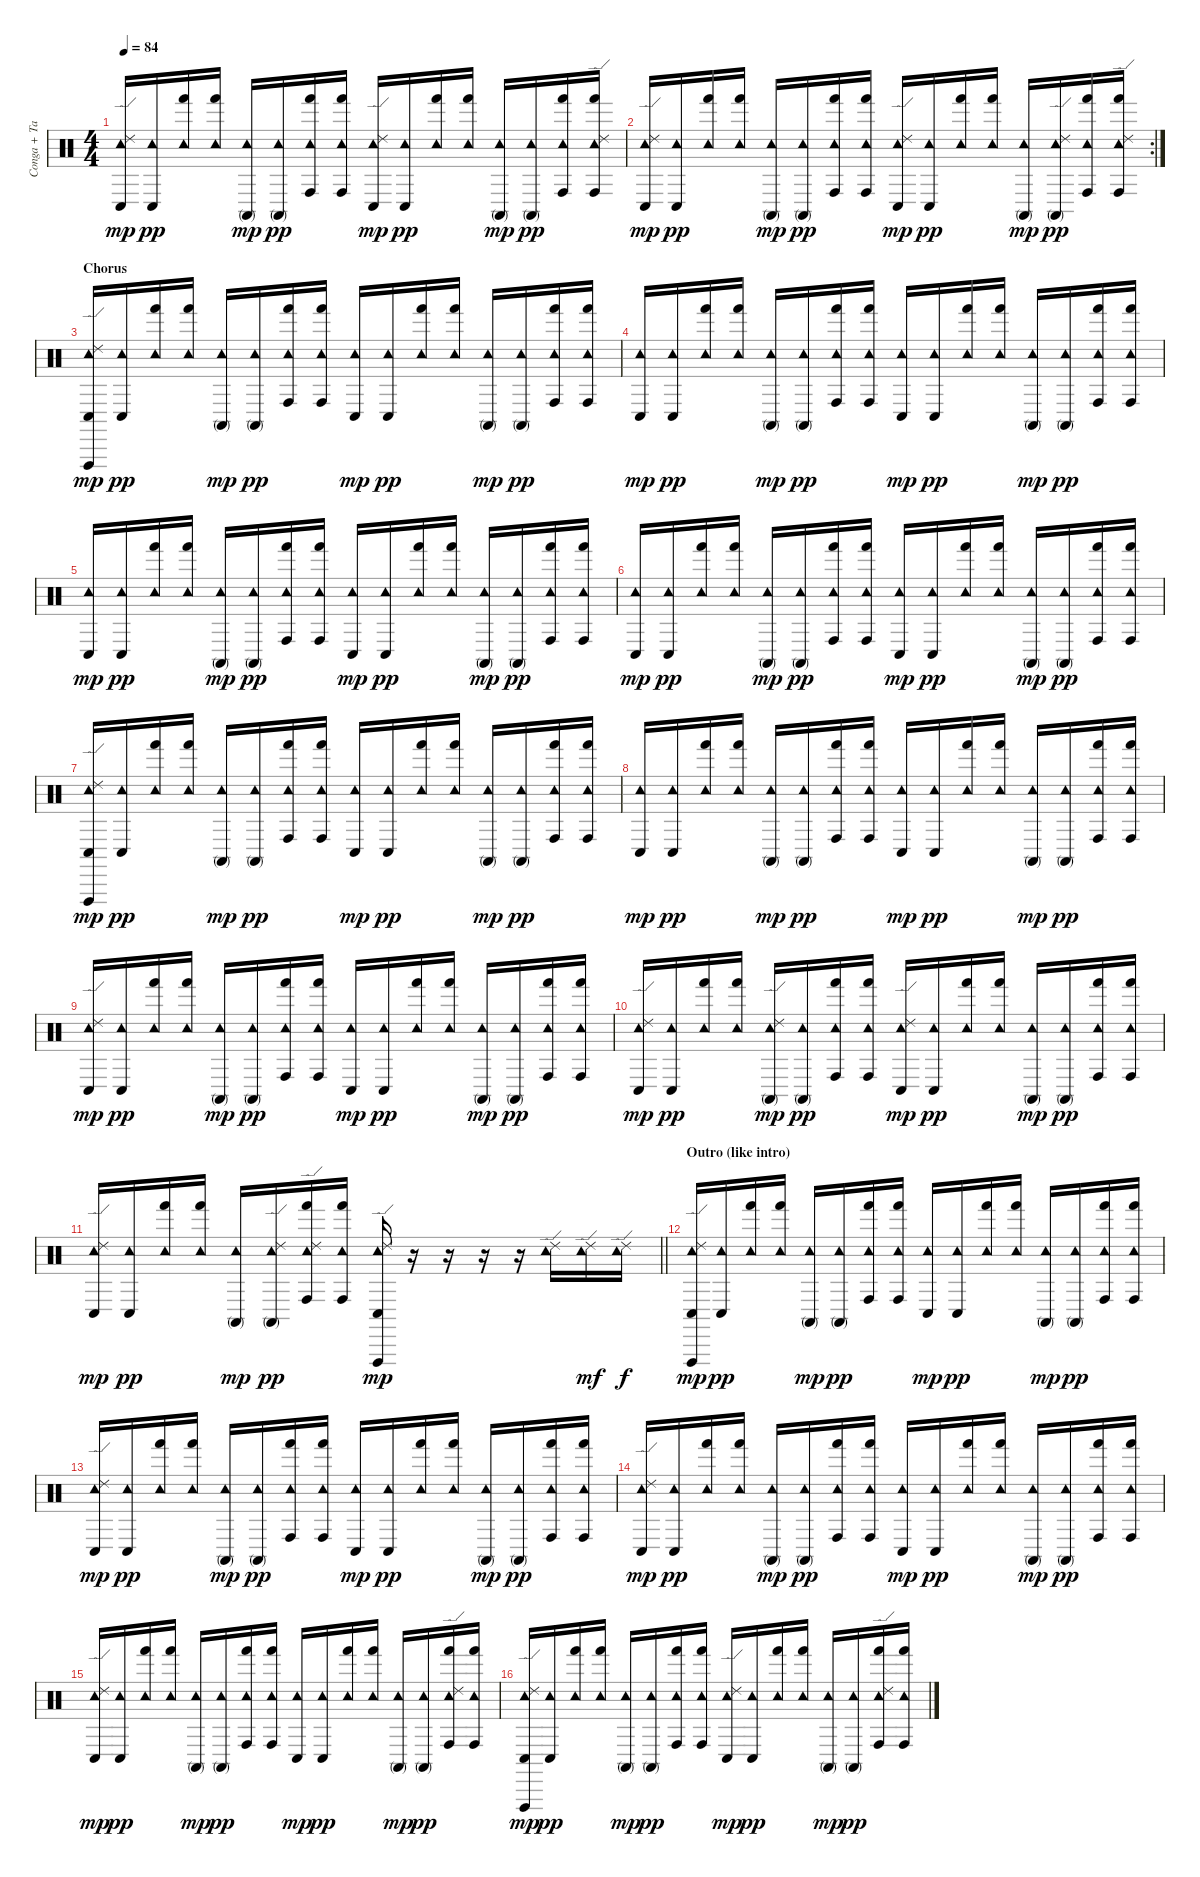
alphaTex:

\track ("Conga + Tambourine" "Conga + Ta") {instrument percussion}
\staff {score}
\articulation defaults
\ts (4 4)
\tempo 84
\clef neutral
\ks c
("Conga low (hit)" "Tambourine (hit)" "Ride (edge) 2").16{dy mp} ("Conga low (hit)" "Tambourine (hit)").16{dy pp} ("Hand (hit)" "Tambourine (hit)").16 ("Hand (hit)" "Tambourine (hit)").16 ("Conga high (mute)" "Tambourine (hit)").16{dy mp} ("Conga high (mute)" "Tambourine (hit)").16{dy pp} ("Conga high (hit)" "Hand (hit)" "Tambourine (hit)").16 ("Conga high (hit)" "Hand (hit)" "Tambourine (hit)").16 ("Conga low (hit)" "Tambourine (hit)" "Ride (edge) 2").16{dy mp} ("Conga low (hit)" "Tambourine (hit)").16{dy pp} ("Hand (hit)" "Tambourine (hit)").16 ("Hand (hit)" "Tambourine (hit)").16 ("Conga high (mute)" "Tambourine (hit)").16{dy mp} ("Conga high (mute)" "Tambourine (hit)").16{dy pp} ("Conga high (hit)" "Hand (hit)" "Tambourine (hit)").16 ("Conga high (hit)" "Hand (hit)" "Tambourine (hit)" "Ride (edge) 2").16 |
\rc 2
("Conga low (hit)" "Tambourine (hit)" "Ride (edge) 2").16{dy mp} ("Conga low (hit)" "Tambourine (hit)").16{dy pp} ("Hand (hit)" "Tambourine (hit)").16 ("Hand (hit)" "Tambourine (hit)").16 ("Conga high (mute)" "Tambourine (hit)").16{dy mp} ("Conga high (mute)" "Tambourine (hit)").16{dy pp} ("Conga high (hit)" "Hand (hit)" "Tambourine (hit)").16 ("Conga high (hit)" "Hand (hit)" "Tambourine (hit)").16 ("Conga low (hit)" "Tambourine (hit)" "Ride (edge) 2").16{dy mp} ("Conga low (hit)" "Tambourine (hit)").16{dy pp} ("Hand (hit)" "Tambourine (hit)").16 ("Hand (hit)" "Tambourine (hit)").16 ("Conga high (mute)" "Tambourine (hit)").16{dy mp} ("Conga high (mute)" "Tambourine (hit)" "Ride (edge) 2").16{dy pp} ("Conga high (hit)" "Hand (hit)" "Tambourine (hit)").16 ("Conga high (hit)" "Hand (hit)" "Tambourine (hit)" "Ride (edge) 2").16 |
\section ("" "Chorus")
("Conga low (hit)" "Vibraslap (hit)" "Tambourine (hit)" "Ride (edge) 2").16{dy mp} ("Conga low (hit)" "Tambourine (hit)").16{dy pp} ("Hand (hit)" "Tambourine (hit)").16 ("Hand (hit)" "Tambourine (hit)").16 ("Conga high (mute)" "Tambourine (hit)").16{dy mp} ("Conga high (mute)" "Tambourine (hit)").16{dy pp} ("Conga high (hit)" "Hand (hit)" "Tambourine (hit)").16 ("Conga high (hit)" "Hand (hit)" "Tambourine (hit)").16 ("Conga low (hit)" "Tambourine (hit)").16{dy mp} ("Conga low (hit)" "Tambourine (hit)").16{dy pp} ("Hand (hit)" "Tambourine (hit)").16 ("Hand (hit)" "Tambourine (hit)").16 ("Conga high (mute)" "Tambourine (hit)").16{dy mp} ("Conga high (mute)" "Tambourine (hit)").16{dy pp} ("Conga high (hit)" "Hand (hit)" "Tambourine (hit)").16 ("Conga high (hit)" "Hand (hit)" "Tambourine (hit)").16 |
("Conga low (hit)" "Tambourine (hit)").16{dy mp} ("Conga low (hit)" "Tambourine (hit)").16{dy pp} ("Hand (hit)" "Tambourine (hit)").16 ("Hand (hit)" "Tambourine (hit)").16 ("Conga high (mute)" "Tambourine (hit)").16{dy mp} ("Conga high (mute)" "Tambourine (hit)").16{dy pp} ("Conga high (hit)" "Hand (hit)" "Tambourine (hit)").16 ("Conga high (hit)" "Hand (hit)" "Tambourine (hit)").16 ("Conga low (hit)" "Tambourine (hit)").16{dy mp} ("Conga low (hit)" "Tambourine (hit)").16{dy pp} ("Hand (hit)" "Tambourine (hit)").16 ("Hand (hit)" "Tambourine (hit)").16 ("Conga high (mute)" "Tambourine (hit)").16{dy mp} ("Conga high (mute)" "Tambourine (hit)").16{dy pp} ("Conga high (hit)" "Hand (hit)" "Tambourine (hit)").16 ("Conga high (hit)" "Hand (hit)" "Tambourine (hit)").16 |
("Conga low (hit)" "Tambourine (hit)").16{dy mp} ("Conga low (hit)" "Tambourine (hit)").16{dy pp} ("Hand (hit)" "Tambourine (hit)").16 ("Hand (hit)" "Tambourine (hit)").16 ("Conga high (mute)" "Tambourine (hit)").16{dy mp} ("Conga high (mute)" "Tambourine (hit)").16{dy pp} ("Conga high (hit)" "Hand (hit)" "Tambourine (hit)").16 ("Conga high (hit)" "Hand (hit)" "Tambourine (hit)").16 ("Conga low (hit)" "Tambourine (hit)").16{dy mp} ("Conga low (hit)" "Tambourine (hit)").16{dy pp} ("Hand (hit)" "Tambourine (hit)").16 ("Hand (hit)" "Tambourine (hit)").16 ("Conga high (mute)" "Tambourine (hit)").16{dy mp} ("Conga high (mute)" "Tambourine (hit)").16{dy pp} ("Conga high (hit)" "Hand (hit)" "Tambourine (hit)").16 ("Conga high (hit)" "Hand (hit)" "Tambourine (hit)").16 |
("Conga low (hit)" "Tambourine (hit)").16{dy mp} ("Conga low (hit)" "Tambourine (hit)").16{dy pp} ("Hand (hit)" "Tambourine (hit)").16 ("Hand (hit)" "Tambourine (hit)").16 ("Conga high (mute)" "Tambourine (hit)").16{dy mp} ("Conga high (mute)" "Tambourine (hit)").16{dy pp} ("Conga high (hit)" "Hand (hit)" "Tambourine (hit)").16 ("Conga high (hit)" "Hand (hit)" "Tambourine (hit)").16 ("Conga low (hit)" "Tambourine (hit)").16{dy mp} ("Conga low (hit)" "Tambourine (hit)").16{dy pp} ("Hand (hit)" "Tambourine (hit)").16 ("Hand (hit)" "Tambourine (hit)").16 ("Conga high (mute)" "Tambourine (hit)").16{dy mp} ("Conga high (mute)" "Tambourine (hit)").16{dy pp} ("Conga high (hit)" "Hand (hit)" "Tambourine (hit)").16 ("Conga high (hit)" "Hand (hit)" "Tambourine (hit)").16 |
("Conga low (hit)" "Vibraslap (hit)" "Tambourine (hit)" "Ride (edge) 2").16{dy mp} ("Conga low (hit)" "Tambourine (hit)").16{dy pp} ("Hand (hit)" "Tambourine (hit)").16 ("Hand (hit)" "Tambourine (hit)").16 ("Conga high (mute)" "Tambourine (hit)").16{dy mp} ("Conga high (mute)" "Tambourine (hit)").16{dy pp} ("Conga high (hit)" "Hand (hit)" "Tambourine (hit)").16 ("Conga high (hit)" "Hand (hit)" "Tambourine (hit)").16 ("Conga low (hit)" "Tambourine (hit)").16{dy mp} ("Conga low (hit)" "Tambourine (hit)").16{dy pp} ("Hand (hit)" "Tambourine (hit)").16 ("Hand (hit)" "Tambourine (hit)").16 ("Conga high (mute)" "Tambourine (hit)").16{dy mp} ("Conga high (mute)" "Tambourine (hit)").16{dy pp} ("Conga high (hit)" "Hand (hit)" "Tambourine (hit)").16 ("Conga high (hit)" "Hand (hit)" "Tambourine (hit)").16 |
("Conga low (hit)" "Tambourine (hit)").16{dy mp} ("Conga low (hit)" "Tambourine (hit)").16{dy pp} ("Hand (hit)" "Tambourine (hit)").16 ("Hand (hit)" "Tambourine (hit)").16 ("Conga high (mute)" "Tambourine (hit)").16{dy mp} ("Conga high (mute)" "Tambourine (hit)").16{dy pp} ("Conga high (hit)" "Hand (hit)" "Tambourine (hit)").16 ("Conga high (hit)" "Hand (hit)" "Tambourine (hit)").16 ("Conga low (hit)" "Tambourine (hit)").16{dy mp} ("Conga low (hit)" "Tambourine (hit)").16{dy pp} ("Hand (hit)" "Tambourine (hit)").16 ("Hand (hit)" "Tambourine (hit)").16 ("Conga high (mute)" "Tambourine (hit)").16{dy mp} ("Conga high (mute)" "Tambourine (hit)").16{dy pp} ("Conga high (hit)" "Hand (hit)" "Tambourine (hit)").16 ("Conga high (hit)" "Hand (hit)" "Tambourine (hit)").16 |
("Conga low (hit)" "Tambourine (hit)" "Ride (edge) 2").16{dy mp} ("Conga low (hit)" "Tambourine (hit)").16{dy pp} ("Hand (hit)" "Tambourine (hit)").16 ("Hand (hit)" "Tambourine (hit)").16 ("Conga high (mute)" "Tambourine (hit)").16{dy mp} ("Conga high (mute)" "Tambourine (hit)").16{dy pp} ("Conga high (hit)" "Hand (hit)" "Tambourine (hit)").16 ("Conga high (hit)" "Hand (hit)" "Tambourine (hit)").16 ("Conga low (hit)" "Tambourine (hit)").16{dy mp} ("Conga low (hit)" "Tambourine (hit)").16{dy pp} ("Hand (hit)" "Tambourine (hit)").16 ("Hand (hit)" "Tambourine (hit)").16 ("Conga high (mute)" "Tambourine (hit)").16{dy mp} ("Conga high (mute)" "Tambourine (hit)").16{dy pp} ("Conga high (hit)" "Hand (hit)" "Tambourine (hit)").16 ("Conga high (hit)" "Hand (hit)" "Tambourine (hit)").16 |
("Conga low (hit)" "Tambourine (hit)" "Ride (edge) 2").16{dy mp} ("Conga low (hit)" "Tambourine (hit)").16{dy pp} ("Hand (hit)" "Tambourine (hit)").16 ("Hand (hit)" "Tambourine (hit)").16 ("Conga high (mute)" "Tambourine (hit)" "Ride (edge) 2").16{dy mp} ("Conga high (mute)" "Tambourine (hit)").16{dy pp} ("Conga high (hit)" "Hand (hit)" "Tambourine (hit)").16 ("Conga high (hit)" "Hand (hit)" "Tambourine (hit)").16 ("Conga low (hit)" "Tambourine (hit)" "Ride (edge) 2").16{dy mp} ("Conga low (hit)" "Tambourine (hit)").16{dy pp} ("Hand (hit)" "Tambourine (hit)").16 ("Hand (hit)" "Tambourine (hit)").16 ("Conga high (mute)" "Tambourine (hit)").16{dy mp} ("Conga high (mute)" "Tambourine (hit)").16{dy pp} ("Conga high (hit)" "Hand (hit)" "Tambourine (hit)").16 ("Conga high (hit)" "Hand (hit)" "Tambourine (hit)").16 |
\barLineRight lightlight
("Conga low (hit)" "Tambourine (hit)" "Ride (edge) 2").16{dy mp} ("Conga low (hit)" "Tambourine (hit)").16{dy pp} ("Hand (hit)" "Tambourine (hit)").16 ("Hand (hit)" "Tambourine (hit)").16 ("Conga high (mute)" "Tambourine (hit)").16{dy mp} ("Conga high (mute)" "Tambourine (hit)" "Ride (edge) 2").16{dy pp} ("Conga high (hit)" "Hand (hit)" "Tambourine (hit)" "Ride (edge) 2").16 ("Conga high (hit)" "Hand (hit)" "Tambourine (hit)").16 ("Conga low (hit)" "Vibraslap (hit)" "Tambourine (hit)" "Ride (edge) 2").16{dy mp} r.16 r.16 r.16 r.16 ("Tambourine (hit)" "Ride (edge) 2").16 ("Tambourine (hit)" "Ride (edge) 2").16{dy mf} ("Tambourine (hit)" "Ride (edge) 2").16{dy f} |
\section ("" "Outro (like intro)")
("Conga low (hit)" "Vibraslap (hit)" "Tambourine (hit)" "Ride (edge) 2").16{dy mp} ("Conga low (hit)" "Tambourine (hit)").16{dy pp} ("Hand (hit)" "Tambourine (hit)").16 ("Hand (hit)" "Tambourine (hit)").16 ("Conga high (mute)" "Tambourine (hit)").16{dy mp} ("Conga high (mute)" "Tambourine (hit)").16{dy pp} ("Conga high (hit)" "Hand (hit)" "Tambourine (hit)").16 ("Conga high (hit)" "Hand (hit)" "Tambourine (hit)").16 ("Conga low (hit)" "Tambourine (hit)").16{dy mp} ("Conga low (hit)" "Tambourine (hit)").16{dy pp} ("Hand (hit)" "Tambourine (hit)").16 ("Hand (hit)" "Tambourine (hit)").16 ("Conga high (mute)" "Tambourine (hit)").16{dy mp} ("Conga high (mute)" "Tambourine (hit)").16{dy pp} ("Conga high (hit)" "Hand (hit)" "Tambourine (hit)").16 ("Conga high (hit)" "Hand (hit)" "Tambourine (hit)").16 |
("Conga low (hit)" "Tambourine (hit)" "Ride (edge) 2").16{dy mp} ("Conga low (hit)" "Tambourine (hit)").16{dy pp} ("Hand (hit)" "Tambourine (hit)").16 ("Hand (hit)" "Tambourine (hit)").16 ("Conga high (mute)" "Tambourine (hit)").16{dy mp} ("Conga high (mute)" "Tambourine (hit)").16{dy pp} ("Conga high (hit)" "Hand (hit)" "Tambourine (hit)").16 ("Conga high (hit)" "Hand (hit)" "Tambourine (hit)").16 ("Conga low (hit)" "Tambourine (hit)").16{dy mp} ("Conga low (hit)" "Tambourine (hit)").16{dy pp} ("Hand (hit)" "Tambourine (hit)").16 ("Hand (hit)" "Tambourine (hit)").16 ("Conga high (mute)" "Tambourine (hit)").16{dy mp} ("Conga high (mute)" "Tambourine (hit)").16{dy pp} ("Conga high (hit)" "Hand (hit)" "Tambourine (hit)").16 ("Conga high (hit)" "Hand (hit)" "Tambourine (hit)").16 |
("Conga low (hit)" "Tambourine (hit)" "Ride (edge) 2").16{dy mp} ("Conga low (hit)" "Tambourine (hit)").16{dy pp} ("Hand (hit)" "Tambourine (hit)").16 ("Hand (hit)" "Tambourine (hit)").16 ("Conga high (mute)" "Tambourine (hit)").16{dy mp} ("Conga high (mute)" "Tambourine (hit)").16{dy pp} ("Conga high (hit)" "Hand (hit)" "Tambourine (hit)").16 ("Conga high (hit)" "Hand (hit)" "Tambourine (hit)").16 ("Conga low (hit)" "Tambourine (hit)").16{dy mp} ("Conga low (hit)" "Tambourine (hit)").16{dy pp} ("Hand (hit)" "Tambourine (hit)").16 ("Hand (hit)" "Tambourine (hit)").16 ("Conga high (mute)" "Tambourine (hit)").16{dy mp} ("Conga high (mute)" "Tambourine (hit)").16{dy pp} ("Conga high (hit)" "Hand (hit)" "Tambourine (hit)").16 ("Conga high (hit)" "Hand (hit)" "Tambourine (hit)").16 |
("Conga low (hit)" "Tambourine (hit)" "Ride (edge) 2").16{dy mp} ("Conga low (hit)" "Tambourine (hit)").16{dy pp} ("Hand (hit)" "Tambourine (hit)").16 ("Hand (hit)" "Tambourine (hit)").16 ("Conga high (mute)" "Tambourine (hit)").16{dy mp} ("Conga high (mute)" "Tambourine (hit)").16{dy pp} ("Conga high (hit)" "Hand (hit)" "Tambourine (hit)").16 ("Conga high (hit)" "Hand (hit)" "Tambourine (hit)").16 ("Conga low (hit)" "Tambourine (hit)").16{dy mp} ("Conga low (hit)" "Tambourine (hit)").16{dy pp} ("Hand (hit)" "Tambourine (hit)").16 ("Hand (hit)" "Tambourine (hit)").16 ("Conga high (mute)" "Tambourine (hit)").16{dy mp} ("Conga high (mute)" "Tambourine (hit)").16{dy pp} ("Conga high (hit)" "Hand (hit)" "Tambourine (hit)" "Ride (edge) 2").16 ("Conga high (hit)" "Hand (hit)" "Tambourine (hit)").16 |
("Conga low (hit)" "Vibraslap (hit)" "Tambourine (hit)" "Ride (edge) 2").16{dy mp} ("Conga low (hit)" "Tambourine (hit)").16{dy pp} ("Hand (hit)" "Tambourine (hit)").16 ("Hand (hit)" "Tambourine (hit)").16 ("Conga high (mute)" "Tambourine (hit)").16{dy mp} ("Conga high (mute)" "Tambourine (hit)").16{dy pp} ("Conga high (hit)" "Hand (hit)" "Tambourine (hit)").16 ("Conga high (hit)" "Hand (hit)" "Tambourine (hit)").16 ("Conga low (hit)" "Tambourine (hit)" "Ride (edge) 2").16{dy mp} ("Conga low (hit)" "Tambourine (hit)").16{dy pp} ("Hand (hit)" "Tambourine (hit)").16 ("Hand (hit)" "Tambourine (hit)").16 ("Conga high (mute)" "Tambourine (hit)").16{dy mp} ("Conga high (mute)" "Tambourine (hit)").16{dy pp} ("Conga high (hit)" "Hand (hit)" "Tambourine (hit)" "Ride (edge) 2").16 ("Conga high (hit)" "Hand (hit)" "Tambourine (hit)").16
